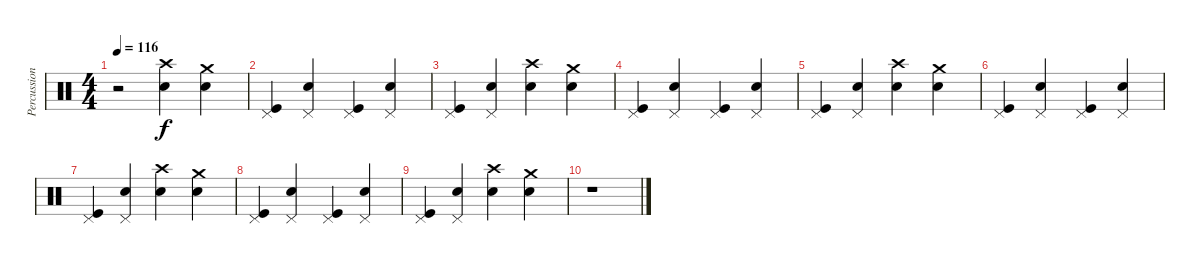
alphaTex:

\track ("Percussions" "Percussion") {instrument percussion}
\staff {score}
\articulation defaults
\ts (4 4)
\tempo 116
\clef neutral
\ks c
r.2{dy f} ("Electric Snare (hit)" "Crash high (hit)").4 ("Crash medium (hit)" "Electric Snare (hit)").4 |
("Pedal Hi-Hat (hit)" "Kick (hit)").4 ("Pedal Hi-Hat (hit)" "Electric Snare (hit)").4 ("Pedal Hi-Hat (hit)" "Kick (hit)").4 ("Pedal Hi-Hat (hit)" "Electric Snare (hit)").4 |
("Pedal Hi-Hat (hit)" "Kick (hit)").4 ("Pedal Hi-Hat (hit)" "Electric Snare (hit)").4 ("Electric Snare (hit)" "Crash high (hit)").4 ("Crash medium (hit)" "Electric Snare (hit)").4 |
("Pedal Hi-Hat (hit)" "Kick (hit)").4 ("Pedal Hi-Hat (hit)" "Electric Snare (hit)").4 ("Pedal Hi-Hat (hit)" "Kick (hit)").4 ("Pedal Hi-Hat (hit)" "Electric Snare (hit)").4 |
("Pedal Hi-Hat (hit)" "Kick (hit)").4 ("Pedal Hi-Hat (hit)" "Electric Snare (hit)").4 ("Electric Snare (hit)" "Crash high (hit)").4 ("Crash medium (hit)" "Electric Snare (hit)").4 |
("Pedal Hi-Hat (hit)" "Kick (hit)").4 ("Pedal Hi-Hat (hit)" "Electric Snare (hit)").4 ("Pedal Hi-Hat (hit)" "Kick (hit)").4 ("Pedal Hi-Hat (hit)" "Electric Snare (hit)").4 |
("Pedal Hi-Hat (hit)" "Kick (hit)").4 ("Pedal Hi-Hat (hit)" "Electric Snare (hit)").4 ("Electric Snare (hit)" "Crash high (hit)").4 ("Crash medium (hit)" "Electric Snare (hit)").4 |
("Pedal Hi-Hat (hit)" "Kick (hit)").4 ("Pedal Hi-Hat (hit)" "Electric Snare (hit)").4 ("Pedal Hi-Hat (hit)" "Kick (hit)").4 ("Pedal Hi-Hat (hit)" "Electric Snare (hit)").4 |
("Pedal Hi-Hat (hit)" "Kick (hit)").4 ("Pedal Hi-Hat (hit)" "Electric Snare (hit)").4 ("Electric Snare (hit)" "Crash high (hit)").4 ("Crash medium (hit)" "Electric Snare (hit)").4 |
r.1
